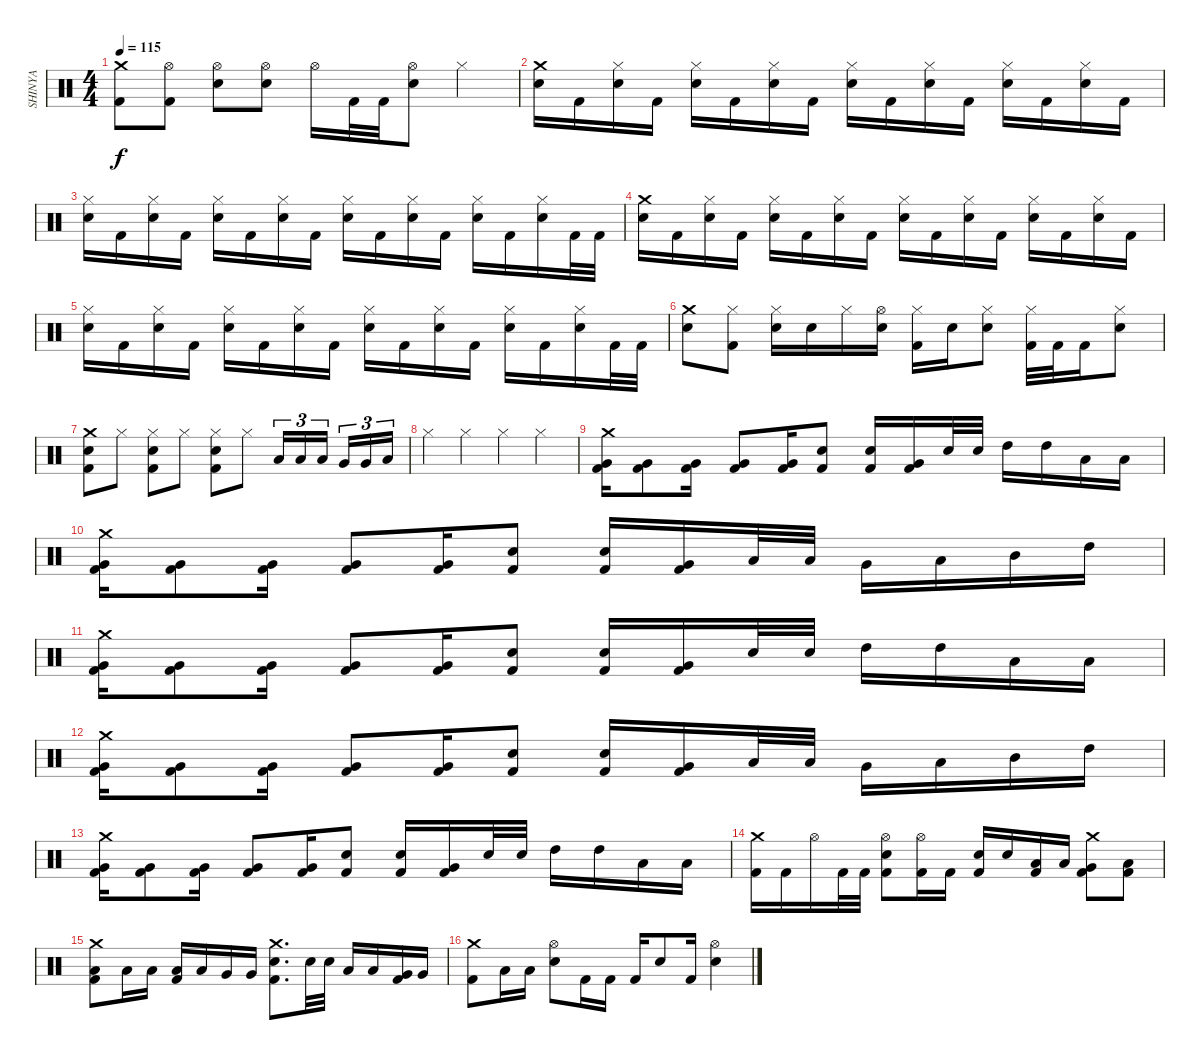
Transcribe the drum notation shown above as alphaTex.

\track ("SHINYA" "SHINYA") {instrument percussion}
\staff {score}
\articulation defaults
\ts (4 4)
\tempo 115
\clef neutral
\ks c
("Crash medium (hit)" "Kick (hit) 2").8{dy f} ("Hi-Hat (open)" "Kick (hit) 2").8 ("Hi-Hat (open)" "Electric Snare (hit)").8 ("Hi-Hat (open)" "Electric Snare (hit)").8 "Hi-Hat (open)".16 "Kick (hit) 2".32 "Kick (hit) 2".32 ("Hi-Hat (open)" "Electric Snare (hit)").8 "Hi-Hat (closed)".4 |
("Crash medium (hit)" "Electric Snare (hit)").16 "Kick (hit) 2".16 ("Hi-Hat (closed)" "Electric Snare (hit)").16 "Kick (hit) 2".16 ("Hi-Hat (closed)" "Electric Snare (hit)").16 "Kick (hit) 2".16 ("Hi-Hat (closed)" "Electric Snare (hit)").16 "Kick (hit) 2".16 ("Hi-Hat (closed)" "Electric Snare (hit)").16 "Kick (hit) 2".16 ("Hi-Hat (closed)" "Electric Snare (hit)").16 "Kick (hit) 2".16 ("Hi-Hat (closed)" "Electric Snare (hit)").16 "Kick (hit) 2".16 ("Hi-Hat (closed)" "Electric Snare (hit)").16 "Kick (hit) 2".16 |
("Hi-Hat (closed)" "Electric Snare (hit)").16 "Kick (hit) 2".16 ("Hi-Hat (closed)" "Electric Snare (hit)").16 "Kick (hit) 2".16 ("Hi-Hat (closed)" "Electric Snare (hit)").16 "Kick (hit) 2".16 ("Hi-Hat (closed)" "Electric Snare (hit)").16 "Kick (hit) 2".16 ("Hi-Hat (closed)" "Electric Snare (hit)").16 "Kick (hit) 2".16 ("Hi-Hat (closed)" "Electric Snare (hit)").16 "Kick (hit) 2".16 ("Hi-Hat (closed)" "Electric Snare (hit)").16 "Kick (hit) 2".16 ("Hi-Hat (closed)" "Electric Snare (hit)").16 "Kick (hit) 2".32 "Kick (hit) 2".32 |
("Crash medium (hit)" "Electric Snare (hit)").16 "Kick (hit) 2".16 ("Hi-Hat (closed)" "Electric Snare (hit)").16 "Kick (hit) 2".16 ("Hi-Hat (closed)" "Electric Snare (hit)").16 "Kick (hit) 2".16 ("Hi-Hat (closed)" "Electric Snare (hit)").16 "Kick (hit) 2".16 ("Hi-Hat (closed)" "Electric Snare (hit)").16 "Kick (hit) 2".16 ("Hi-Hat (closed)" "Electric Snare (hit)").16 "Kick (hit) 2".16 ("Hi-Hat (closed)" "Electric Snare (hit)").16 "Kick (hit) 2".16 ("Hi-Hat (closed)" "Electric Snare (hit)").16 "Kick (hit) 2".16 |
("Hi-Hat (closed)" "Electric Snare (hit)").16 "Kick (hit) 2".16 ("Hi-Hat (closed)" "Electric Snare (hit)").16 "Kick (hit) 2".16 ("Hi-Hat (closed)" "Electric Snare (hit)").16 "Kick (hit) 2".16 ("Hi-Hat (closed)" "Electric Snare (hit)").16 "Kick (hit) 2".16 ("Hi-Hat (closed)" "Electric Snare (hit)").16 "Kick (hit) 2".16 ("Hi-Hat (closed)" "Electric Snare (hit)").16 "Kick (hit) 2".16 ("Hi-Hat (closed)" "Electric Snare (hit)").16 "Kick (hit) 2".16 ("Hi-Hat (closed)" "Electric Snare (hit)").16 "Kick (hit) 2".32 "Kick (hit) 2".32 |
("Crash medium (hit)" "Electric Snare (hit)").8 ("Hi-Hat (closed)" "Kick (hit) 2").8 ("Hi-Hat (closed)" "Electric Snare (hit)").16 "Electric Snare (hit)".16 "Hi-Hat (closed)".16 ("Hi-Hat (open)" "Electric Snare (hit)").16 ("Hi-Hat (closed)" "Kick (hit) 2").16 "Electric Snare (hit)".16 ("Hi-Hat (closed)" "Electric Snare (hit)").8 ("Hi-Hat (closed)" "Kick (hit) 2").32 "Kick (hit) 2".32 "Kick (hit) 2".16 ("Hi-Hat (closed)" "Electric Snare (hit)").8 |
("Crash medium (hit)" "Electric Snare (hit)" "Kick (hit) 2").8 "Hi-Hat (closed)".8 ("Hi-Hat (closed)" "Electric Snare (hit)" "Kick (hit) 2").8 "Hi-Hat (closed)".8 ("Hi-Hat (closed)" "Electric Snare (hit)" "Kick (hit) 2").8 "Hi-Hat (closed)".8 "Low Tom (hit)".16{tu (3 2)} "Low Tom (hit)".16{tu (3 2)} "Low Tom (hit)".16{tu (3 2) beam splitsecondary} "Very Low Tom (hit)".16{tu (3 2)} "Very Low Tom (hit)".16{tu (3 2)} "Low Floor Tom (hit)".16{tu (3 2)} |
"Hi-Hat (closed)".4 "Hi-Hat (closed)".4 "Hi-Hat (closed)".4 "Hi-Hat (closed)".4 |
("Crash medium (hit)" "Very Low Tom (hit)" "Kick (hit) 2").16 ("Very Low Tom (hit)" "Kick (hit) 2").8 ("Very Low Tom (hit)" "Kick (hit) 2").16 ("Very Low Tom (hit)" "Kick (hit) 2").8 ("Very Low Tom (hit)" "Kick (hit) 2").16 ("Electric Snare (hit)" "Kick (hit) 2").8 ("Electric Snare (hit)" "Kick (hit) 2").16 ("Very Low Tom (hit)" "Kick (hit) 2").16 "Electric Snare (hit)".32 "Electric Snare (hit)".32 "High Tom (hit)".16 "High Tom (hit)".16 "Low Tom (hit)".16 "Low Tom (hit)".16 |
("Crash medium (hit)" "Very Low Tom (hit)" "Kick (hit) 2").16 ("Very Low Tom (hit)" "Kick (hit) 2").8 ("Very Low Tom (hit)" "Kick (hit) 2").16 ("Very Low Tom (hit)" "Kick (hit) 2").8 ("Very Low Tom (hit)" "Kick (hit) 2").16 ("Electric Snare (hit)" "Kick (hit) 2").8 ("Electric Snare (hit)" "Kick (hit) 2").16 ("Very Low Tom (hit)" "Kick (hit) 2").16 "Low Floor Tom (hit)".32 "Low Floor Tom (hit)".32 "Very Low Tom (hit)".16 "Low Floor Tom (hit)".16 "Mid Tom (hit)".16 "High Tom (hit)".16 |
("Crash medium (hit)" "Very Low Tom (hit)" "Kick (hit) 2").16 ("Very Low Tom (hit)" "Kick (hit) 2").8 ("Very Low Tom (hit)" "Kick (hit) 2").16 ("Very Low Tom (hit)" "Kick (hit) 2").8 ("Very Low Tom (hit)" "Kick (hit) 2").16 ("Electric Snare (hit)" "Kick (hit) 2").8 ("Electric Snare (hit)" "Kick (hit) 2").16 ("Very Low Tom (hit)" "Kick (hit) 2").16 "Electric Snare (hit)".32 "Electric Snare (hit)".32 "High Tom (hit)".16 "High Tom (hit)".16 "Low Tom (hit)".16 "Low Tom (hit)".16 |
("Crash medium (hit)" "Very Low Tom (hit)" "Kick (hit) 2").16 ("Very Low Tom (hit)" "Kick (hit) 2").8 ("Very Low Tom (hit)" "Kick (hit) 2").16 ("Very Low Tom (hit)" "Kick (hit) 2").8 ("Very Low Tom (hit)" "Kick (hit) 2").16 ("Electric Snare (hit)" "Kick (hit) 2").8 ("Electric Snare (hit)" "Kick (hit) 2").16 ("Very Low Tom (hit)" "Kick (hit) 2").16 "Low Floor Tom (hit)".32 "Low Floor Tom (hit)".32 "Very Low Tom (hit)".16 "Low Floor Tom (hit)".16 "Mid Tom (hit)".16 "High Tom (hit)".16 |
("Crash medium (hit)" "Very Low Tom (hit)" "Kick (hit) 2").16 ("Very Low Tom (hit)" "Kick (hit) 2").8 ("Very Low Tom (hit)" "Kick (hit) 2").16 ("Very Low Tom (hit)" "Kick (hit) 2").8 ("Very Low Tom (hit)" "Kick (hit) 2").16 ("Electric Snare (hit)" "Kick (hit) 2").8 ("Electric Snare (hit)" "Kick (hit) 2").16 ("Very Low Tom (hit)" "Kick (hit) 2").16 "Electric Snare (hit)".32 "Electric Snare (hit)".32 "High Tom (hit)".16 "High Tom (hit)".16 "Low Tom (hit)".16 "Low Tom (hit)".16 |
("Crash medium (hit)" "Kick (hit) 2").16 "Kick (hit) 2".16 "Hi-Hat (open)".16 "Kick (hit) 2".32 "Kick (hit) 2".32 ("Hi-Hat (open)" "Electric Snare (hit)" "Kick (hit) 2").8 ("Hi-Hat (open)" "Kick (hit) 2").16 "Kick (hit) 2".16 ("Electric Snare (hit)" "Kick (hit) 2").16 "Electric Snare (hit)".16 ("Low Tom (hit)" "Kick (hit) 2").16 "Low Tom (hit)".16 ("Crash medium (hit)" "Very Low Tom (hit)" "Kick (hit) 2").8 ("Low Floor Tom (hit)" "Kick (hit) 2").8 |
("Crash medium (hit)" "Low Floor Tom (hit)" "Kick (hit) 2").8 "Low Floor Tom (hit)".16 "Low Floor Tom (hit)".16 ("Low Tom (hit)" "Kick (hit) 2").16 "Low Tom (hit)".16 "Very Low Tom (hit)".16 "Very Low Tom (hit)".16 ("Crash medium (hit)" "Electric Snare (hit)" "Kick (hit) 2").8{d} "Electric Snare (hit)".32 "Electric Snare (hit)".32 "Low Tom (hit)".16 "Low Tom (hit)".16 ("Very Low Tom (hit)" "Kick (hit) 2").16 "Very Low Tom (hit)".16 |
("Crash medium (hit)" "Kick (hit) 2").8 "Low Floor Tom (hit)".16 "Low Floor Tom (hit)".16 ("Hi-Hat (open)" "Electric Snare (hit)").8 "Kick (hit) 2".16 "Kick (hit) 2".16 "Kick (hit) 2".16 "Electric Snare (hit)".8 "Kick (hit) 2".16 ("Hi-Hat (open)" "Electric Snare (hit)").4
